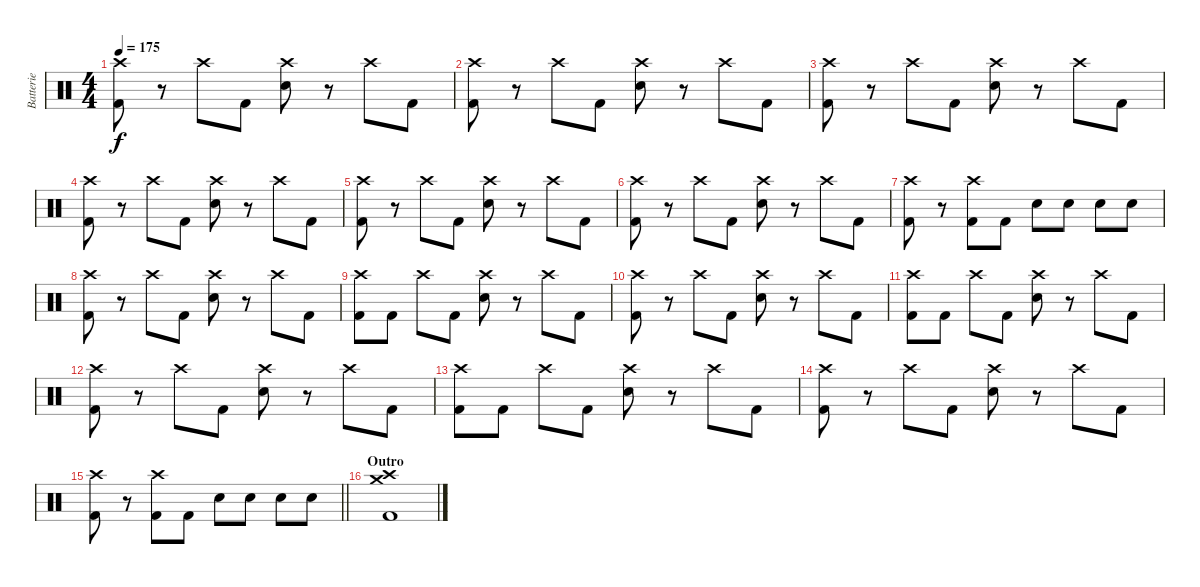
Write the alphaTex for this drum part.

\track ("Batterie" "Batterie") {instrument percussion}
\staff {score}
\articulation defaults
\ts (4 4)
\tempo 175
\clef neutral
\ks c
("Kick (hit) 2" "Crash high (hit)").8{dy f} r.8 "Crash high (hit)".8 "Kick (hit) 2".8 ("Electric Snare (hit)" "Crash high (hit)").8 r.8 "Crash high (hit)".8 "Kick (hit) 2".8 |
("Kick (hit) 2" "Crash high (hit)").8 r.8 "Crash high (hit)".8 "Kick (hit) 2".8 ("Electric Snare (hit)" "Crash high (hit)").8 r.8 "Crash high (hit)".8 "Kick (hit) 2".8 |
("Kick (hit) 2" "Crash high (hit)").8 r.8 "Crash high (hit)".8 "Kick (hit) 2".8 ("Electric Snare (hit)" "Crash high (hit)").8 r.8 "Crash high (hit)".8 "Kick (hit) 2".8 |
("Kick (hit) 2" "Crash high (hit)").8 r.8 "Crash high (hit)".8 "Kick (hit) 2".8 ("Electric Snare (hit)" "Crash high (hit)").8 r.8 "Crash high (hit)".8 "Kick (hit) 2".8 |
("Kick (hit) 2" "Crash high (hit)").8 r.8 "Crash high (hit)".8 "Kick (hit) 2".8 ("Electric Snare (hit)" "Crash high (hit)").8 r.8 "Crash high (hit)".8 "Kick (hit) 2".8 |
("Kick (hit) 2" "Crash high (hit)").8 r.8 "Crash high (hit)".8 "Kick (hit) 2".8 ("Electric Snare (hit)" "Crash high (hit)").8 r.8 "Crash high (hit)".8 "Kick (hit) 2".8 |
("Kick (hit) 2" "Crash high (hit)").8 r.8 ("Kick (hit) 2" "Crash high (hit)").8 "Kick (hit) 2".8 "Electric Snare (hit)".8 "Electric Snare (hit)".8 "Electric Snare (hit)".8 "Electric Snare (hit)".8 |
("Kick (hit) 2" "Crash high (hit)").8 r.8 "Crash high (hit)".8 "Kick (hit) 2".8 ("Electric Snare (hit)" "Crash high (hit)").8 r.8 "Crash high (hit)".8 "Kick (hit) 2".8 |
("Kick (hit) 2" "Crash high (hit)").8 "Kick (hit) 2".8 "Crash high (hit)".8 "Kick (hit) 2".8 ("Electric Snare (hit)" "Crash high (hit)").8 r.8 "Crash high (hit)".8 "Kick (hit) 2".8 |
("Kick (hit) 2" "Crash high (hit)").8 r.8 "Crash high (hit)".8 "Kick (hit) 2".8 ("Electric Snare (hit)" "Crash high (hit)").8 r.8 "Crash high (hit)".8 "Kick (hit) 2".8 |
("Kick (hit) 2" "Crash high (hit)").8 "Kick (hit) 2".8 "Crash high (hit)".8 "Kick (hit) 2".8 ("Electric Snare (hit)" "Crash high (hit)").8 r.8 "Crash high (hit)".8 "Kick (hit) 2".8 |
("Kick (hit) 2" "Crash high (hit)").8 r.8 "Crash high (hit)".8 "Kick (hit) 2".8 ("Electric Snare (hit)" "Crash high (hit)").8 r.8 "Crash high (hit)".8 "Kick (hit) 2".8 |
("Kick (hit) 2" "Crash high (hit)").8 "Kick (hit) 2".8 "Crash high (hit)".8 "Kick (hit) 2".8 ("Electric Snare (hit)" "Crash high (hit)").8 r.8 "Crash high (hit)".8 "Kick (hit) 2".8 |
("Kick (hit) 2" "Crash high (hit)").8 r.8 "Crash high (hit)".8 "Kick (hit) 2".8 ("Electric Snare (hit)" "Crash high (hit)").8 r.8 "Crash high (hit)".8 "Kick (hit) 2".8 |
\barLineRight lightlight
("Kick (hit) 2" "Crash high (hit)").8 r.8 ("Kick (hit) 2" "Crash high (hit)").8 "Kick (hit) 2".8 "Electric Snare (hit)".8 "Electric Snare (hit)".8 "Electric Snare (hit)".8 "Electric Snare (hit)".8 |
\section ("" "Outro")
("Kick (hit) 2" "Crash medium (hit)" "Crash high (hit)").1
